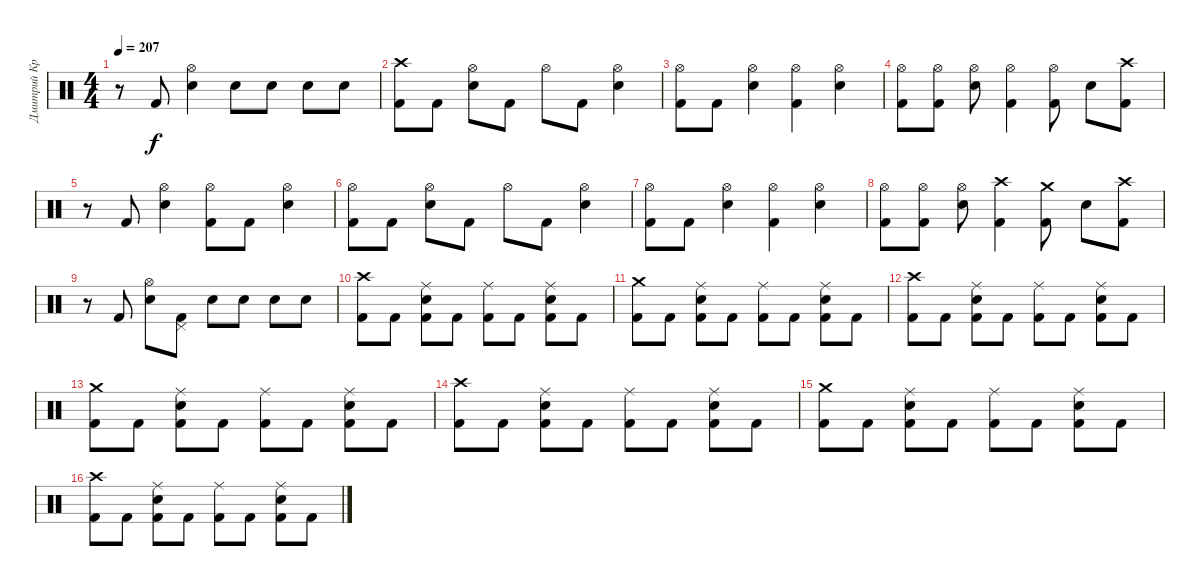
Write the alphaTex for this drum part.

\track ("Дмитрий Кривенков" "Дмитрий Кр") {instrument percussion}
\staff {score}
\articulation defaults
\ts (4 4)
\tempo 207
\clef neutral
\ks c
r.8{dy f} "Kick (hit) 2".8 ("Hi-Hat (open)" "Electric Snare (hit)").4 "Electric Snare (hit)".8 "Electric Snare (hit)".8 "Electric Snare (hit)".8 "Electric Snare (hit)".8 |
("Crash high (hit)" "Kick (hit) 2").8 "Kick (hit) 2".8 ("Hi-Hat (open)" "Electric Snare (hit)").8 "Kick (hit) 2".8 "Hi-Hat (open)".8 "Kick (hit) 2".8 ("Hi-Hat (open)" "Electric Snare (hit)").4 |
("Hi-Hat (open)" "Kick (hit) 2").8 "Kick (hit) 2".8 ("Hi-Hat (open)" "Electric Snare (hit)").4 ("Hi-Hat (open)" "Kick (hit) 2").4 ("Hi-Hat (open)" "Electric Snare (hit)").4 |
("Hi-Hat (open)" "Kick (hit) 2").8 ("Hi-Hat (open)" "Kick (hit) 2").8 ("Hi-Hat (open)" "Electric Snare (hit)").8 ("Hi-Hat (open)" "Kick (hit) 2").4 ("Hi-Hat (open)" "Kick (hit) 2").8 "Electric Snare (hit)".8 ("Crash high (hit)" "Kick (hit) 2").8 |
r.8 "Kick (hit) 2".8 ("Hi-Hat (open)" "Electric Snare (hit)").4 ("Hi-Hat (open)" "Kick (hit) 2").8 "Kick (hit) 2".8 ("Hi-Hat (open)" "Electric Snare (hit)").4 |
("Hi-Hat (open)" "Kick (hit) 2").8 "Kick (hit) 2".8 ("Hi-Hat (open)" "Electric Snare (hit)").8 "Kick (hit) 2".8 "Hi-Hat (open)".8 "Kick (hit) 2".8 ("Hi-Hat (open)" "Electric Snare (hit)").4 |
("Hi-Hat (open)" "Kick (hit) 2").8 "Kick (hit) 2".8 ("Hi-Hat (open)" "Electric Snare (hit)").4 ("Hi-Hat (open)" "Kick (hit) 2").4 ("Hi-Hat (open)" "Electric Snare (hit)").4 |
("Hi-Hat (open)" "Kick (hit) 2").8 ("Hi-Hat (open)" "Kick (hit) 2").8 ("Hi-Hat (open)" "Electric Snare (hit)").8 ("Crash high (hit)" "Kick (hit) 2").4 ("Crash medium (hit)" "Kick (hit) 2").8 "Electric Snare (hit)".8 ("Crash high (hit)" "Kick (hit) 2").8 |
r.8 "Kick (hit) 2".8 ("Hi-Hat (open)" "Electric Snare (hit)").8 ("Pedal Hi-Hat (hit)" "Kick (hit) 2").8 "Electric Snare (hit)".8 "Electric Snare (hit)".8 "Electric Snare (hit)".8 "Electric Snare (hit)".8 |
("Crash high (hit)" "Kick (hit) 2").8 "Kick (hit) 2".8 ("Ride (middle)" "Electric Snare (hit)" "Kick (hit) 2").8 "Kick (hit) 2".8 ("Ride (middle)" "Kick (hit) 2").8 "Kick (hit) 2".8 ("Ride (middle)" "Electric Snare (hit)" "Kick (hit) 2").8 "Kick (hit) 2".8 |
("Crash medium (hit)" "Kick (hit) 2").8 "Kick (hit) 2".8 ("Ride (middle)" "Electric Snare (hit)" "Kick (hit) 2").8 "Kick (hit) 2".8 ("Ride (middle)" "Kick (hit) 2").8 "Kick (hit) 2".8 ("Ride (middle)" "Electric Snare (hit)" "Kick (hit) 2").8 "Kick (hit) 2".8 |
("Crash high (hit)" "Kick (hit) 2").8 "Kick (hit) 2".8 ("Ride (middle)" "Electric Snare (hit)" "Kick (hit) 2").8 "Kick (hit) 2".8 ("Ride (middle)" "Kick (hit) 2").8 "Kick (hit) 2".8 ("Ride (middle)" "Electric Snare (hit)" "Kick (hit) 2").8 "Kick (hit) 2".8 |
("Crash medium (hit)" "Kick (hit) 2").8 "Kick (hit) 2".8 ("Ride (middle)" "Electric Snare (hit)" "Kick (hit) 2").8 "Kick (hit) 2".8 ("Ride (middle)" "Kick (hit) 2").8 "Kick (hit) 2".8 ("Ride (middle)" "Electric Snare (hit)" "Kick (hit) 2").8 "Kick (hit) 2".8 |
("Crash high (hit)" "Kick (hit) 2").8 "Kick (hit) 2".8 ("Ride (middle)" "Electric Snare (hit)" "Kick (hit) 2").8 "Kick (hit) 2".8 ("Ride (middle)" "Kick (hit) 2").8 "Kick (hit) 2".8 ("Ride (middle)" "Electric Snare (hit)" "Kick (hit) 2").8 "Kick (hit) 2".8 |
("Crash medium (hit)" "Kick (hit) 2").8 "Kick (hit) 2".8 ("Ride (middle)" "Electric Snare (hit)" "Kick (hit) 2").8 "Kick (hit) 2".8 ("Ride (middle)" "Kick (hit) 2").8 "Kick (hit) 2".8 ("Ride (middle)" "Electric Snare (hit)" "Kick (hit) 2").8 "Kick (hit) 2".8 |
("Crash high (hit)" "Kick (hit) 2").8 "Kick (hit) 2".8 ("Ride (middle)" "Electric Snare (hit)" "Kick (hit) 2").8 "Kick (hit) 2".8 ("Ride (middle)" "Kick (hit) 2").8 "Kick (hit) 2".8 ("Ride (middle)" "Electric Snare (hit)" "Kick (hit) 2").8 "Kick (hit) 2".8
